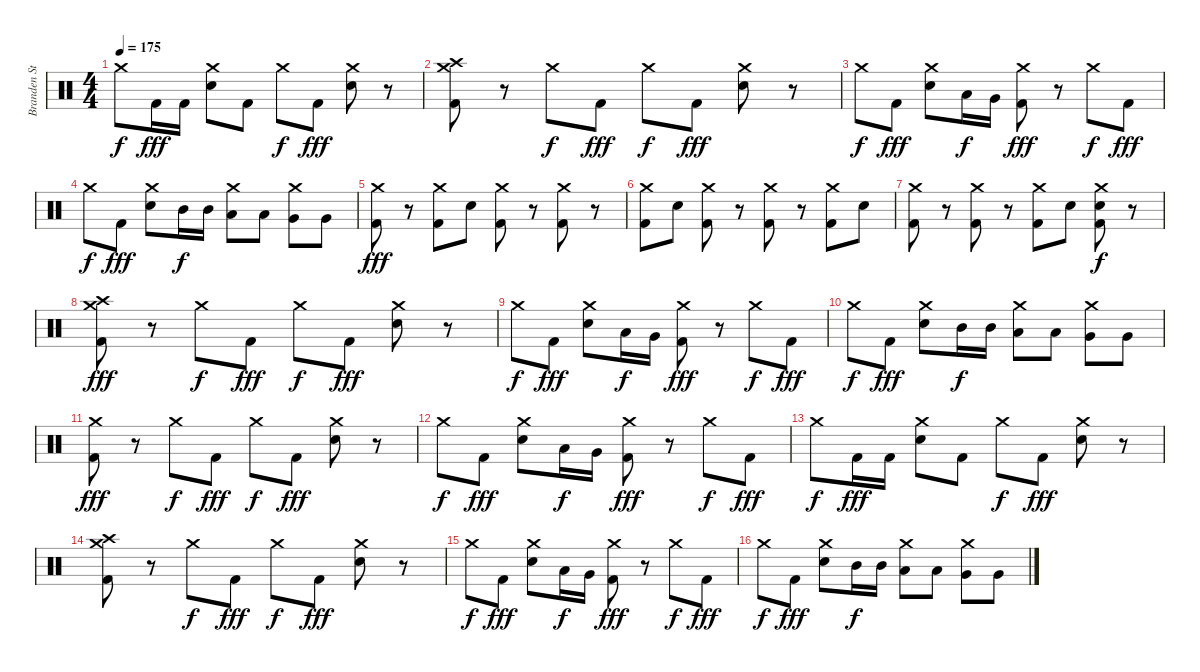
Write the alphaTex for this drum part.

\track ("Branden Steineckert (Drums)" "Branden St") {instrument percussion}
\staff {score}
\articulation defaults
\ts (4 4)
\tempo 175
\clef neutral
\ks c "Crash medium (hit)".8{dy f} "Kick (hit) 2".16{dy fff} "Kick (hit) 2".16
("Electric Snare (hit)" "Crash medium (hit)").8 "Kick (hit) 2".8 "Crash medium (hit)".8{dy f} "Kick (hit) 2".8{dy fff} ("Electric Snare (hit)" "Crash medium (hit)").8 r.8 |
("Kick (hit) 2" "Crash high (hit)" "Crash medium (hit)").8 r.8 "Crash medium (hit)".8{dy f} "Kick (hit) 2".8{dy fff} "Crash medium (hit)".8{dy f} "Kick (hit) 2".8{dy fff} ("Electric Snare (hit)" "Crash medium (hit)").8 r.8 |
"Crash medium (hit)".8{dy f} "Kick (hit) 2".8{dy fff} ("Electric Snare (hit)" "Crash medium (hit)").8 "Low Tom (hit)".16{dy f} "Very Low Tom (hit)".16 ("Kick (hit) 2" "Crash medium (hit)").8{dy fff} r.8 "Crash medium (hit)".8{dy f} "Kick (hit) 2".8{dy fff} |
"Crash medium (hit)".8{dy f} "Kick (hit) 2".8{dy fff} ("Electric Snare (hit)" "Crash medium (hit)").8 "Mid Tom (hit)".16{dy f} "Mid Tom (hit)".16 ("Low Tom (hit)" "Crash medium (hit)").8 "Low Tom (hit)".8 ("Very Low Tom (hit)" "Crash medium (hit)").8 "Very Low Tom (hit)".8 |
("Kick (hit) 2" "Crash medium (hit)").8{dy fff} r.8 ("Kick (hit) 2" "Crash medium (hit)").8 "Electric Snare (hit)".8 ("Kick (hit) 2" "Crash medium (hit)").8 r.8 ("Kick (hit) 2" "Crash medium (hit)").8 r.8 |
("Kick (hit) 2" "Crash medium (hit)").8 "Electric Snare (hit)".8 ("Kick (hit) 2" "Crash medium (hit)").8 r.8 ("Kick (hit) 2" "Crash medium (hit)").8 r.8 ("Kick (hit) 2" "Crash medium (hit)").8 "Electric Snare (hit)".8 |
("Kick (hit) 2" "Crash medium (hit)").8 r.8 ("Kick (hit) 2" "Crash medium (hit)").8 r.8 ("Kick (hit) 2" "Crash medium (hit)").8 "Electric Snare (hit)".8 ("Kick (hit) 2" "Electric Snare (hit)" "Crash medium (hit)").8{dy f} r.8 |
("Kick (hit) 2" "Crash high (hit)" "Crash medium (hit)").8{dy fff} r.8 "Crash medium (hit)".8{dy f} "Kick (hit) 2".8{dy fff} "Crash medium (hit)".8{dy f} "Kick (hit) 2".8{dy fff} ("Electric Snare (hit)" "Crash medium (hit)").8 r.8 |
"Crash medium (hit)".8{dy f} "Kick (hit) 2".8{dy fff} ("Electric Snare (hit)" "Crash medium (hit)").8 "Low Tom (hit)".16{dy f} "Very Low Tom (hit)".16 ("Kick (hit) 2" "Crash medium (hit)").8{dy fff} r.8 "Crash medium (hit)".8{dy f} "Kick (hit) 2".8{dy fff} |
"Crash medium (hit)".8{dy f} "Kick (hit) 2".8{dy fff} ("Electric Snare (hit)" "Crash medium (hit)").8 "Mid Tom (hit)".16{dy f} "Mid Tom (hit)".16 ("Low Tom (hit)" "Crash medium (hit)").8 "Low Tom (hit)".8 ("Very Low Tom (hit)" "Crash medium (hit)").8 "Very Low Tom (hit)".8 |
("Kick (hit) 2" "Crash medium (hit)").8{dy fff} r.8 "Crash medium (hit)".8{dy f} "Kick (hit) 2".8{dy fff} "Crash medium (hit)".8{dy f} "Kick (hit) 2".8{dy fff} ("Electric Snare (hit)" "Crash medium (hit)").8 r.8 |
"Crash medium (hit)".8{dy f} "Kick (hit) 2".8{dy fff} ("Electric Snare (hit)" "Crash medium (hit)").8 "Low Tom (hit)".16{dy f} "Very Low Tom (hit)".16 ("Kick (hit) 2" "Crash medium (hit)").8{dy fff} r.8 "Crash medium (hit)".8{dy f} "Kick (hit) 2".8{dy fff} |
"Crash medium (hit)".8{dy f} "Kick (hit) 2".16{dy fff} "Kick (hit) 2".16 ("Electric Snare (hit)" "Crash medium (hit)").8 "Kick (hit) 2".8 "Crash medium (hit)".8{dy f} "Kick (hit) 2".8{dy fff} ("Electric Snare (hit)" "Crash medium (hit)").8 r.8 |
("Kick (hit) 2" "Crash high (hit)" "Crash medium (hit)").8 r.8 "Crash medium (hit)".8{dy f} "Kick (hit) 2".8{dy fff} "Crash medium (hit)".8{dy f} "Kick (hit) 2".8{dy fff} ("Electric Snare (hit)" "Crash medium (hit)").8 r.8 |
"Crash medium (hit)".8{dy f} "Kick (hit) 2".8{dy fff} ("Electric Snare (hit)" "Crash medium (hit)").8 "Low Tom (hit)".16{dy f} "Very Low Tom (hit)".16 ("Kick (hit) 2" "Crash medium (hit)").8{dy fff} r.8 "Crash medium (hit)".8{dy f} "Kick (hit) 2".8{dy fff} |
"Crash medium (hit)".8{dy f} "Kick (hit) 2".8{dy fff} ("Electric Snare (hit)" "Crash medium (hit)").8 "Mid Tom (hit)".16{dy f} "Mid Tom (hit)".16 ("Low Tom (hit)" "Crash medium (hit)").8 "Low Tom (hit)".8 ("Very Low Tom (hit)" "Crash medium (hit)").8 "Very Low Tom (hit)".8
